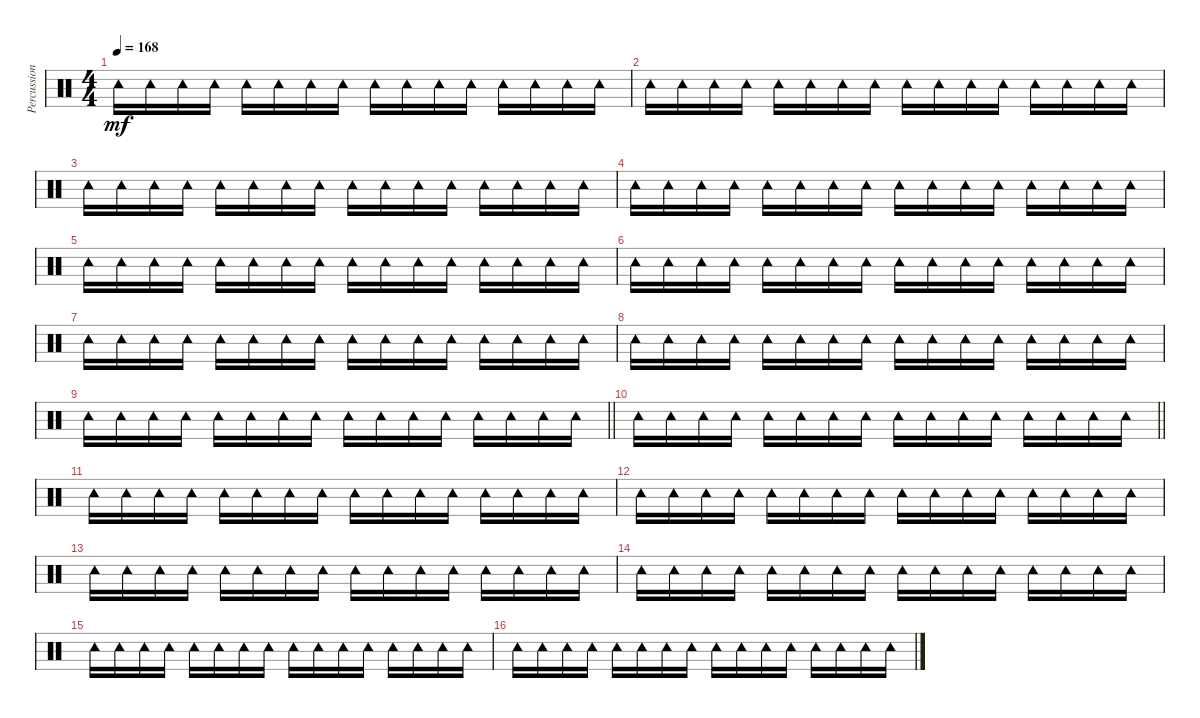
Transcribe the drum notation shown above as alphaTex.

\track ("Percussion" "Percussion") {instrument percussion}
\staff {score}
\articulation defaults
\ts (4 4)
\tempo 168
\clef neutral
\ks c "Tambourine (hit)".16{dy mf} "Tambourine (hit)".16 "Tambourine (hit)".16 "Tambourine (hit)".16 "Tambourine (hit)".16 "Tambourine (hit)".16 "Tambourine (hit)".16 "Tambourine (hit)".16 "Tambourine (hit)".16 "Tambourine (hit)".16 "Tambourine (hit)".16 "Tambourine (hit)".16 "Tambourine (hit)".16 "Tambourine (hit)".16 "Tambourine (hit)".16 "Tambourine (hit)".16
|
"Tambourine (hit)".16 "Tambourine (hit)".16 "Tambourine (hit)".16 "Tambourine (hit)".16 "Tambourine (hit)".16 "Tambourine (hit)".16 "Tambourine (hit)".16 "Tambourine (hit)".16 "Tambourine (hit)".16 "Tambourine (hit)".16 "Tambourine (hit)".16 "Tambourine (hit)".16 "Tambourine (hit)".16 "Tambourine (hit)".16 "Tambourine (hit)".16 "Tambourine (hit)".16 |
"Tambourine (hit)".16 "Tambourine (hit)".16 "Tambourine (hit)".16 "Tambourine (hit)".16 "Tambourine (hit)".16 "Tambourine (hit)".16 "Tambourine (hit)".16 "Tambourine (hit)".16 "Tambourine (hit)".16 "Tambourine (hit)".16 "Tambourine (hit)".16 "Tambourine (hit)".16 "Tambourine (hit)".16 "Tambourine (hit)".16 "Tambourine (hit)".16 "Tambourine (hit)".16 |
"Tambourine (hit)".16 "Tambourine (hit)".16 "Tambourine (hit)".16 "Tambourine (hit)".16 "Tambourine (hit)".16 "Tambourine (hit)".16 "Tambourine (hit)".16 "Tambourine (hit)".16 "Tambourine (hit)".16 "Tambourine (hit)".16 "Tambourine (hit)".16 "Tambourine (hit)".16 "Tambourine (hit)".16 "Tambourine (hit)".16 "Tambourine (hit)".16 "Tambourine (hit)".16 |
"Tambourine (hit)".16 "Tambourine (hit)".16 "Tambourine (hit)".16 "Tambourine (hit)".16 "Tambourine (hit)".16 "Tambourine (hit)".16 "Tambourine (hit)".16 "Tambourine (hit)".16 "Tambourine (hit)".16 "Tambourine (hit)".16 "Tambourine (hit)".16 "Tambourine (hit)".16 "Tambourine (hit)".16 "Tambourine (hit)".16 "Tambourine (hit)".16 "Tambourine (hit)".16 |
"Tambourine (hit)".16 "Tambourine (hit)".16 "Tambourine (hit)".16 "Tambourine (hit)".16 "Tambourine (hit)".16 "Tambourine (hit)".16 "Tambourine (hit)".16 "Tambourine (hit)".16 "Tambourine (hit)".16 "Tambourine (hit)".16 "Tambourine (hit)".16 "Tambourine (hit)".16 "Tambourine (hit)".16 "Tambourine (hit)".16 "Tambourine (hit)".16 "Tambourine (hit)".16 |
"Tambourine (hit)".16 "Tambourine (hit)".16 "Tambourine (hit)".16 "Tambourine (hit)".16 "Tambourine (hit)".16 "Tambourine (hit)".16 "Tambourine (hit)".16 "Tambourine (hit)".16 "Tambourine (hit)".16 "Tambourine (hit)".16 "Tambourine (hit)".16 "Tambourine (hit)".16 "Tambourine (hit)".16 "Tambourine (hit)".16 "Tambourine (hit)".16 "Tambourine (hit)".16 |
"Tambourine (hit)".16 "Tambourine (hit)".16 "Tambourine (hit)".16 "Tambourine (hit)".16 "Tambourine (hit)".16 "Tambourine (hit)".16 "Tambourine (hit)".16 "Tambourine (hit)".16 "Tambourine (hit)".16 "Tambourine (hit)".16 "Tambourine (hit)".16 "Tambourine (hit)".16 "Tambourine (hit)".16 "Tambourine (hit)".16 "Tambourine (hit)".16 "Tambourine (hit)".16 |
\barLineRight lightlight "Tambourine (hit)".16 "Tambourine (hit)".16 "Tambourine (hit)".16 "Tambourine (hit)".16 "Tambourine (hit)".16 "Tambourine (hit)".16 "Tambourine (hit)".16 "Tambourine (hit)".16 "Tambourine (hit)".16 "Tambourine (hit)".16 "Tambourine (hit)".16 "Tambourine (hit)".16 "Tambourine (hit)".16 "Tambourine (hit)".16 "Tambourine (hit)".16 "Tambourine (hit)".16
|
\barLineRight lightlight "Tambourine (hit)".16 "Tambourine (hit)".16 "Tambourine (hit)".16 "Tambourine (hit)".16 "Tambourine (hit)".16 "Tambourine (hit)".16 "Tambourine (hit)".16 "Tambourine (hit)".16 "Tambourine (hit)".16 "Tambourine (hit)".16 "Tambourine (hit)".16 "Tambourine (hit)".16 "Tambourine (hit)".16 "Tambourine (hit)".16 "Tambourine (hit)".16 "Tambourine (hit)".16
|
"Tambourine (hit)".16 "Tambourine (hit)".16 "Tambourine (hit)".16 "Tambourine (hit)".16 "Tambourine (hit)".16 "Tambourine (hit)".16 "Tambourine (hit)".16 "Tambourine (hit)".16 "Tambourine (hit)".16 "Tambourine (hit)".16 "Tambourine (hit)".16 "Tambourine (hit)".16 "Tambourine (hit)".16 "Tambourine (hit)".16 "Tambourine (hit)".16 "Tambourine (hit)".16 |
"Tambourine (hit)".16 "Tambourine (hit)".16 "Tambourine (hit)".16 "Tambourine (hit)".16 "Tambourine (hit)".16 "Tambourine (hit)".16 "Tambourine (hit)".16 "Tambourine (hit)".16 "Tambourine (hit)".16 "Tambourine (hit)".16 "Tambourine (hit)".16 "Tambourine (hit)".16 "Tambourine (hit)".16 "Tambourine (hit)".16 "Tambourine (hit)".16 "Tambourine (hit)".16 |
"Tambourine (hit)".16 "Tambourine (hit)".16 "Tambourine (hit)".16 "Tambourine (hit)".16 "Tambourine (hit)".16 "Tambourine (hit)".16 "Tambourine (hit)".16 "Tambourine (hit)".16 "Tambourine (hit)".16 "Tambourine (hit)".16 "Tambourine (hit)".16 "Tambourine (hit)".16 "Tambourine (hit)".16 "Tambourine (hit)".16 "Tambourine (hit)".16 "Tambourine (hit)".16 |
"Tambourine (hit)".16 "Tambourine (hit)".16 "Tambourine (hit)".16 "Tambourine (hit)".16 "Tambourine (hit)".16 "Tambourine (hit)".16 "Tambourine (hit)".16 "Tambourine (hit)".16 "Tambourine (hit)".16 "Tambourine (hit)".16 "Tambourine (hit)".16 "Tambourine (hit)".16 "Tambourine (hit)".16 "Tambourine (hit)".16 "Tambourine (hit)".16 "Tambourine (hit)".16 |
"Tambourine (hit)".16 "Tambourine (hit)".16 "Tambourine (hit)".16 "Tambourine (hit)".16 "Tambourine (hit)".16 "Tambourine (hit)".16 "Tambourine (hit)".16 "Tambourine (hit)".16 "Tambourine (hit)".16 "Tambourine (hit)".16 "Tambourine (hit)".16 "Tambourine (hit)".16 "Tambourine (hit)".16 "Tambourine (hit)".16 "Tambourine (hit)".16 "Tambourine (hit)".16 |
"Tambourine (hit)".16 "Tambourine (hit)".16 "Tambourine (hit)".16 "Tambourine (hit)".16 "Tambourine (hit)".16 "Tambourine (hit)".16 "Tambourine (hit)".16 "Tambourine (hit)".16 "Tambourine (hit)".16 "Tambourine (hit)".16 "Tambourine (hit)".16 "Tambourine (hit)".16 "Tambourine (hit)".16 "Tambourine (hit)".16 "Tambourine (hit)".16 "Tambourine (hit)".16
